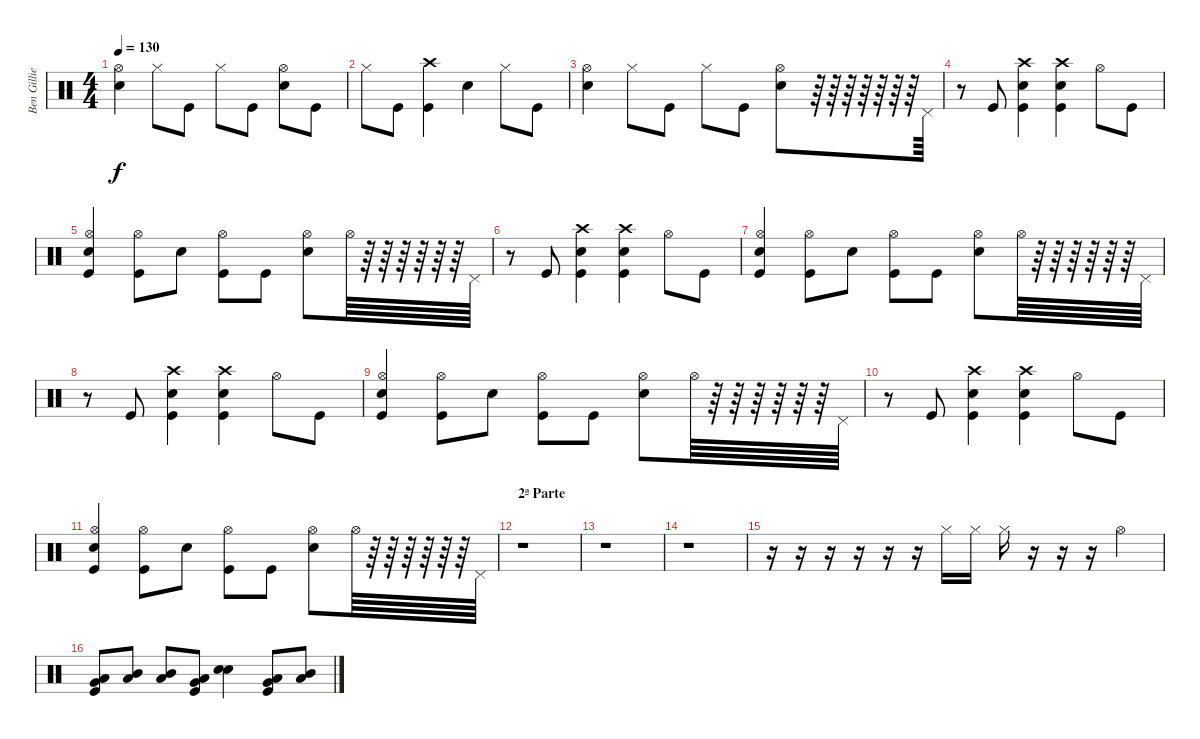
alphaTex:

\track ("Ben Gillies" "Ben Gillie") {instrument percussion}
\staff {score}
\articulation defaults
\ts (4 4)
\tempo 130
\clef neutral
\ks c
("Snare (hit) 2" "Hi-Hat (open)").4{dy f} "Hi-Hat (closed)".8 "Kick (hit)".8 "Hi-Hat (closed)".8 "Kick (hit)".8 ("Snare (hit) 2" "Hi-Hat (open)").8 "Kick (hit)".8 |
"Hi-Hat (closed)".8 "Kick (hit)".8 ("Kick (hit)" "Crash high (hit)").4 "Snare (hit) 2".4 "Hi-Hat (closed)".8 "Kick (hit)".8 |
("Snare (hit) 2" "Hi-Hat (open)").4 "Hi-Hat (closed)".8 "Kick (hit)".8 "Hi-Hat (closed)".8 "Kick (hit)".8 ("Snare (hit) 2" "Hi-Hat (open)").8 r.64 r.64 r.64 r.64 r.64 r.64 r.64 "Pedal Hi-Hat (hit)".64 |
r.8 "Kick (hit)".8 ("Kick (hit)" "Snare (hit) 2" "Crash high (hit)").4 ("Kick (hit)" "Snare (hit) 2" "Crash high (hit)").4 "Hi-Hat (open)".8 "Kick (hit)".8 |
("Kick (hit)" "Snare (hit) 2" "Hi-Hat (open)").4 ("Kick (hit)" "Hi-Hat (open)").8 "Snare (hit) 2".8 ("Kick (hit)" "Hi-Hat (open)").8 "Kick (hit)".8 ("Snare (hit) 2" "Hi-Hat (open)").8 "Hi-Hat (open)".64 r.64 r.64 r.64 r.64 r.64 r.64 "Pedal Hi-Hat (hit)".64 |
r.8 "Kick (hit)".8 ("Kick (hit)" "Snare (hit) 2" "Crash high (hit)").4 ("Kick (hit)" "Snare (hit) 2" "Crash high (hit)").4 "Hi-Hat (open)".8 "Kick (hit)".8 |
("Kick (hit)" "Snare (hit) 2" "Hi-Hat (open)").4 ("Kick (hit)" "Hi-Hat (open)").8 "Snare (hit) 2".8 ("Kick (hit)" "Hi-Hat (open)").8 "Kick (hit)".8 ("Snare (hit) 2" "Hi-Hat (open)").8 "Hi-Hat (open)".64 r.64 r.64 r.64 r.64 r.64 r.64 "Pedal Hi-Hat (hit)".64 |
r.8 "Kick (hit)".8 ("Kick (hit)" "Snare (hit) 2" "Crash high (hit)").4 ("Kick (hit)" "Snare (hit) 2" "Crash high (hit)").4 "Hi-Hat (open)".8 "Kick (hit)".8 |
("Kick (hit)" "Snare (hit) 2" "Hi-Hat (open)").4 ("Kick (hit)" "Hi-Hat (open)").8 "Snare (hit) 2".8 ("Kick (hit)" "Hi-Hat (open)").8 "Kick (hit)".8 ("Snare (hit) 2" "Hi-Hat (open)").8 "Hi-Hat (open)".64 r.64 r.64 r.64 r.64 r.64 r.64 "Pedal Hi-Hat (hit)".64 |
r.8 "Kick (hit)".8 ("Kick (hit)" "Snare (hit) 2" "Crash high (hit)").4 ("Kick (hit)" "Snare (hit) 2" "Crash high (hit)").4 "Hi-Hat (open)".8 "Kick (hit)".8 |
("Kick (hit)" "Snare (hit) 2" "Hi-Hat (open)").4 ("Kick (hit)" "Hi-Hat (open)").8 "Snare (hit) 2".8 ("Kick (hit)" "Hi-Hat (open)").8 "Kick (hit)".8 ("Snare (hit) 2" "Hi-Hat (open)").8 "Hi-Hat (open)".64 r.64 r.64 r.64 r.64 r.64 r.64 "Pedal Hi-Hat (hit)".64 |
\section ("" "2ª Parte")
r.1 |
r.1 |
r.1 |
r.16 r.16 r.16 r.16 r.16 r.16 "Hi-Hat (closed)".16 "Hi-Hat (closed)".16 "Hi-Hat (closed)".16 r.16 r.16 r.16 "Hi-Hat (open)".4 |
("Kick (hit)" "Very Low Tom (hit)" "Low Tom (hit)").8 ("Low Tom (hit)" "Mid Tom (hit)").8 ("Low Tom (hit)" "Mid Tom (hit)").8 ("Kick (hit)" "Very Low Tom (hit)" "Low Tom (hit)").8 ("Snare (hit) 2" "Snare (hit) 2").4{bu 60} ("Kick (hit)" "Very Low Tom (hit)" "Low Tom (hit)").8 ("Low Tom (hit)" "Mid Tom (hit)").8
